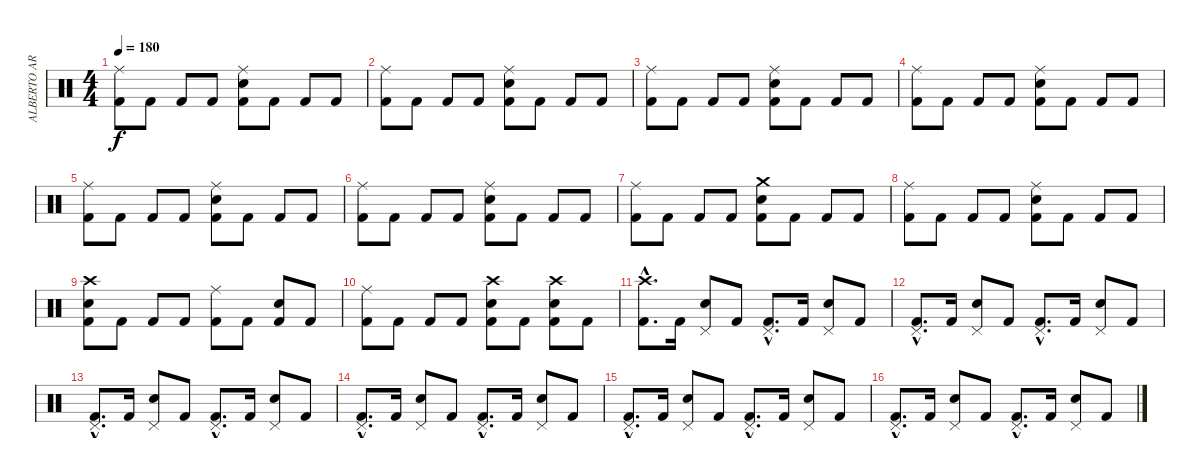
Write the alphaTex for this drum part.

\track ("ALBERTO ARDINES" "ALBERTO AR") {instrument percussion}
\staff {score}
\articulation defaults
\ts (4 4)
\tempo 180
\clef neutral
\ks c
("Ride (middle)" "Kick (hit) 2").8{dy f} "Kick (hit) 2".8 "Kick (hit) 2".8 "Kick (hit) 2".8 ("Ride (middle)" "Electric Snare (hit)" "Kick (hit) 2").8 "Kick (hit) 2".8 "Kick (hit) 2".8 "Kick (hit) 2".8 |
("Ride (middle)" "Kick (hit) 2").8 "Kick (hit) 2".8 "Kick (hit) 2".8 "Kick (hit) 2".8 ("Ride (middle)" "Electric Snare (hit)" "Kick (hit) 2").8 "Kick (hit) 2".8 "Kick (hit) 2".8 "Kick (hit) 2".8 |
("Ride (middle)" "Kick (hit) 2").8 "Kick (hit) 2".8 "Kick (hit) 2".8 "Kick (hit) 2".8 ("Ride (middle)" "Electric Snare (hit)" "Kick (hit) 2").8 "Kick (hit) 2".8 "Kick (hit) 2".8 "Kick (hit) 2".8 |
("Ride (middle)" "Kick (hit) 2").8 "Kick (hit) 2".8 "Kick (hit) 2".8 "Kick (hit) 2".8 ("Ride (middle)" "Electric Snare (hit)" "Kick (hit) 2").8 "Kick (hit) 2".8 "Kick (hit) 2".8 "Kick (hit) 2".8 |
("Ride (middle)" "Kick (hit) 2").8 "Kick (hit) 2".8 "Kick (hit) 2".8 "Kick (hit) 2".8 ("Ride (middle)" "Electric Snare (hit)" "Kick (hit) 2").8 "Kick (hit) 2".8 "Kick (hit) 2".8 "Kick (hit) 2".8 |
("Ride (middle)" "Kick (hit) 2").8 "Kick (hit) 2".8 "Kick (hit) 2".8 "Kick (hit) 2".8 ("Ride (middle)" "Electric Snare (hit)" "Kick (hit) 2").8 "Kick (hit) 2".8 "Kick (hit) 2".8 "Kick (hit) 2".8 |
("Ride (middle)" "Kick (hit) 2").8 "Kick (hit) 2".8 "Kick (hit) 2".8 "Kick (hit) 2".8 ("Crash medium (hit)" "Electric Snare (hit)" "Kick (hit) 2").8 "Kick (hit) 2".8 "Kick (hit) 2".8 "Kick (hit) 2".8 |
("Ride (middle)" "Kick (hit) 2").8 "Kick (hit) 2".8 "Kick (hit) 2".8 "Kick (hit) 2".8 ("Ride (middle)" "Electric Snare (hit)" "Kick (hit) 2").8 "Kick (hit) 2".8 "Kick (hit) 2".8 "Kick (hit) 2".8 |
("Crash high (hit)" "Electric Snare (hit)" "Kick (hit) 2").8 "Kick (hit) 2".8 "Kick (hit) 2".8 "Kick (hit) 2".8 ("Ride (middle)" "Kick (hit) 2").8 "Kick (hit) 2".8 ("Electric Snare (hit)" "Kick (hit) 2").8 "Kick (hit) 2".8 |
("Ride (middle)" "Kick (hit) 2").8 "Kick (hit) 2".8 "Kick (hit) 2".8 "Kick (hit) 2".8 ("Crash high (hit)" "Electric Snare (hit)" "Kick (hit) 2").8 "Kick (hit) 2".8 ("Crash high (hit)" "Electric Snare (hit)" "Kick (hit) 2").8 "Kick (hit) 2".8 |
("Crash high (hit)"{hac} "Kick (hit) 2"{hac}).8{d} "Kick (hit) 2".16 ("Pedal Hi-Hat (hit)" "Electric Snare (hit)").8 "Kick (hit) 2".8 ("Pedal Hi-Hat (hit)"{hac} "Kick (hit) 2"{hac}).8{d} "Kick (hit) 2".16 ("Pedal Hi-Hat (hit)" "Electric Snare (hit)").8 "Kick (hit) 2".8 |
("Pedal Hi-Hat (hit)"{hac} "Kick (hit) 2"{hac}).8{d} "Kick (hit) 2".16 ("Pedal Hi-Hat (hit)" "Electric Snare (hit)").8 "Kick (hit) 2".8 ("Pedal Hi-Hat (hit)"{hac} "Kick (hit) 2"{hac}).8{d} "Kick (hit) 2".16 ("Pedal Hi-Hat (hit)" "Electric Snare (hit)").8 "Kick (hit) 2".8 |
("Pedal Hi-Hat (hit)"{hac} "Kick (hit) 2"{hac}).8{d} "Kick (hit) 2".16 ("Pedal Hi-Hat (hit)" "Electric Snare (hit)").8 "Kick (hit) 2".8 ("Pedal Hi-Hat (hit)"{hac} "Kick (hit) 2"{hac}).8{d} "Kick (hit) 2".16 ("Pedal Hi-Hat (hit)" "Electric Snare (hit)").8 "Kick (hit) 2".8 |
("Pedal Hi-Hat (hit)"{hac} "Kick (hit) 2"{hac}).8{d} "Kick (hit) 2".16 ("Pedal Hi-Hat (hit)" "Electric Snare (hit)").8 "Kick (hit) 2".8 ("Pedal Hi-Hat (hit)"{hac} "Kick (hit) 2"{hac}).8{d} "Kick (hit) 2".16 ("Pedal Hi-Hat (hit)" "Electric Snare (hit)").8 "Kick (hit) 2".8 |
("Pedal Hi-Hat (hit)"{hac} "Kick (hit) 2"{hac}).8{d} "Kick (hit) 2".16 ("Pedal Hi-Hat (hit)" "Electric Snare (hit)").8 "Kick (hit) 2".8 ("Pedal Hi-Hat (hit)"{hac} "Kick (hit) 2"{hac}).8{d} "Kick (hit) 2".16 ("Pedal Hi-Hat (hit)" "Electric Snare (hit)").8 "Kick (hit) 2".8 |
("Pedal Hi-Hat (hit)"{hac} "Kick (hit) 2"{hac}).8{d} "Kick (hit) 2".16 ("Pedal Hi-Hat (hit)" "Electric Snare (hit)").8 "Kick (hit) 2".8 ("Pedal Hi-Hat (hit)"{hac} "Kick (hit) 2"{hac}).8{d} "Kick (hit) 2".16 ("Pedal Hi-Hat (hit)" "Electric Snare (hit)").8 "Kick (hit) 2".8
